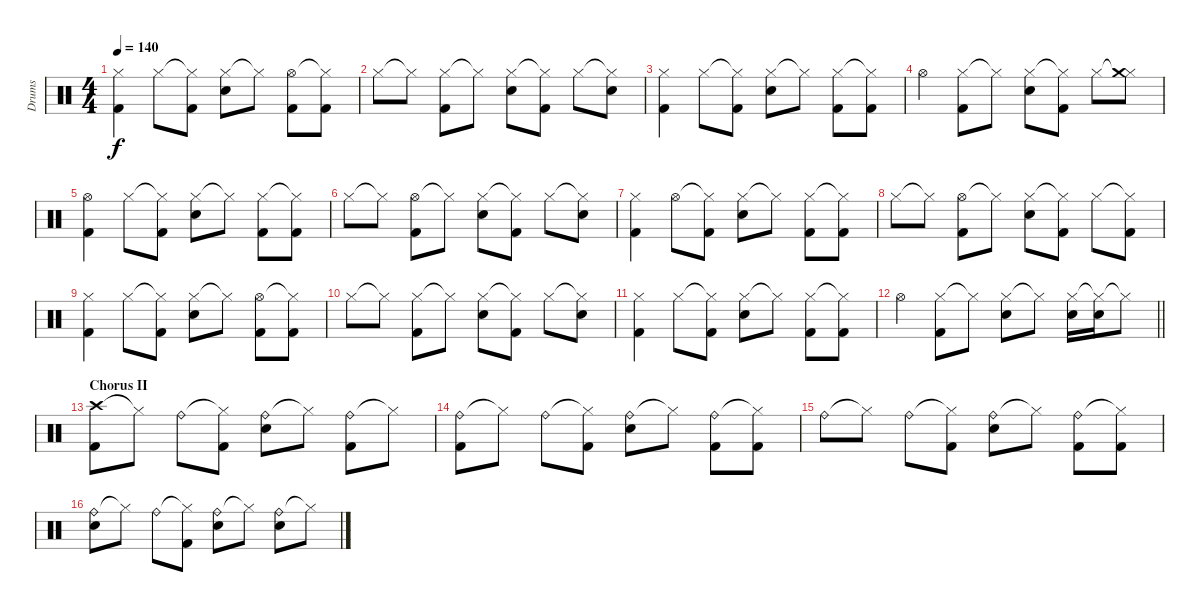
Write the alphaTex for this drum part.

\track ("Drums" "Drums") {instrument percussion}
\staff {score}
\articulation defaults
\ts (4 4)
\tempo 140
\clef neutral
\ks c
("Hi-Hat (closed)" "Kick (hit) 2").4{dy f} "Hi-Hat (closed)".8 ("Hi-Hat (closed)"{t} "Kick (hit) 2").8 ("Hi-Hat (closed)" "Snare (hit) 2").8 "Hi-Hat (closed)"{t}.8 ("Hi-Hat (open)" "Kick (hit) 2").8 ("Hi-Hat (closed)"{t} "Kick (hit) 2").8 |
"Hi-Hat (closed)".8 "Hi-Hat (closed)"{t}.8 ("Hi-Hat (closed)" "Kick (hit) 2").8 "Hi-Hat (closed)"{t}.8 ("Hi-Hat (closed)" "Snare (hit) 2").8 ("Hi-Hat (closed)"{t} "Kick (hit) 2").8 "Hi-Hat (closed)".8 ("Hi-Hat (closed)"{t} "Snare (hit) 2").8 |
("Hi-Hat (closed)" "Kick (hit) 2").4 "Hi-Hat (closed)".8 ("Hi-Hat (closed)"{t} "Kick (hit) 2").8 ("Hi-Hat (closed)" "Snare (hit) 2").8 "Hi-Hat (closed)"{t}.8 ("Hi-Hat (closed)" "Kick (hit) 2").8 ("Hi-Hat (closed)"{t} "Kick (hit) 2").8 |
"Hi-Hat (open)".4 ("Hi-Hat (closed)" "Kick (hit) 2").8 "Hi-Hat (closed)"{t}.8 ("Hi-Hat (closed)" "Snare (hit) 2").8 ("Hi-Hat (closed)"{t} "Kick (hit) 2").8 "Hi-Hat (closed)".8 ("Hi-Hat (closed)"{t} "Crash medium (hit)").8 |
("Hi-Hat (open)" "Kick (hit) 2").4 "Hi-Hat (closed)".8 ("Hi-Hat (closed)"{t} "Kick (hit) 2").8 ("Hi-Hat (closed)" "Snare (hit) 2").8 "Hi-Hat (closed)"{t}.8 ("Hi-Hat (closed)" "Kick (hit) 2").8 ("Hi-Hat (closed)"{t} "Kick (hit) 2").8 |
"Hi-Hat (closed)".8 "Hi-Hat (closed)"{t}.8 ("Hi-Hat (open)" "Kick (hit) 2").8 "Hi-Hat (closed)"{t}.8 ("Hi-Hat (closed)" "Snare (hit) 2").8 ("Hi-Hat (closed)"{t} "Kick (hit) 2").8 "Hi-Hat (closed)".8 ("Hi-Hat (closed)"{t} "Snare (hit) 2").8 |
("Hi-Hat (closed)" "Kick (hit) 2").4 "Hi-Hat (open)".8 ("Hi-Hat (closed)"{t} "Kick (hit) 2").8 ("Hi-Hat (closed)" "Snare (hit) 2").8 "Hi-Hat (closed)"{t}.8 ("Hi-Hat (closed)" "Kick (hit) 2").8 ("Hi-Hat (closed)"{t} "Kick (hit) 2").8 |
"Hi-Hat (closed)".8 "Hi-Hat (closed)"{t}.8 ("Hi-Hat (open)" "Kick (hit) 2").8 "Hi-Hat (closed)"{t}.8 ("Hi-Hat (closed)" "Snare (hit) 2").8 ("Hi-Hat (closed)"{t} "Kick (hit) 2").8 "Hi-Hat (closed)".8 ("Hi-Hat (closed)"{t} "Kick (hit) 2").8 |
("Hi-Hat (closed)" "Kick (hit) 2").4 "Hi-Hat (closed)".8 ("Hi-Hat (closed)"{t} "Kick (hit) 2").8 ("Hi-Hat (closed)" "Snare (hit) 2").8 "Hi-Hat (closed)"{t}.8 ("Hi-Hat (open)" "Kick (hit) 2").8 ("Hi-Hat (closed)"{t} "Kick (hit) 2").8 |
"Hi-Hat (closed)".8 "Hi-Hat (closed)"{t}.8 ("Hi-Hat (closed)" "Kick (hit) 2").8 "Hi-Hat (closed)"{t}.8 ("Hi-Hat (closed)" "Snare (hit) 2").8 ("Hi-Hat (closed)"{t} "Kick (hit) 2").8 "Hi-Hat (closed)".8 ("Hi-Hat (closed)"{t} "Snare (hit) 2").8 |
("Hi-Hat (closed)" "Kick (hit) 2").4 "Hi-Hat (closed)".8 ("Hi-Hat (closed)"{t} "Kick (hit) 2").8 ("Hi-Hat (closed)" "Snare (hit) 2").8 "Hi-Hat (closed)"{t}.8 ("Hi-Hat (closed)" "Kick (hit) 2").8 ("Hi-Hat (closed)"{t} "Kick (hit) 2").8 |
\barLineRight lightlight "Hi-Hat (open)".4
("Hi-Hat (closed)" "Kick (hit) 2").8 "Hi-Hat (closed)"{t}.8 ("Hi-Hat (closed)" "Snare (hit) 2").8 "Hi-Hat (closed)"{t}.8 ("Hi-Hat (closed)" "Snare (hit) 2").16 ("Hi-Hat (closed)"{t} "Snare (hit) 2").16 "Hi-Hat (closed)"{t}.8 |
\section ("" "Chorus II")
("Crash high (hit)" "Kick (hit) 2").8 "Hi-Hat (closed)"{t}.8 "Ride (bell)".8 ("Hi-Hat (closed)"{t} "Kick (hit) 2").8 ("Ride (bell)" "Snare (hit) 2").8 "Hi-Hat (closed)"{t}.8 ("Ride (bell)" "Kick (hit) 2").8 "Hi-Hat (closed)"{t}.8 |
("Ride (bell)" "Kick (hit) 2").8 "Hi-Hat (closed)"{t}.8 "Ride (bell)".8 ("Hi-Hat (closed)"{t} "Kick (hit) 2").8 ("Ride (bell)" "Snare (hit) 2").8 "Hi-Hat (closed)"{t}.8 ("Ride (bell)" "Kick (hit) 2").8 ("Hi-Hat (closed)"{t} "Kick (hit) 2").8 |
"Ride (bell)".8 "Hi-Hat (closed)"{t}.8 "Ride (bell)".8 ("Hi-Hat (closed)"{t} "Kick (hit) 2").8 ("Ride (bell)" "Snare (hit) 2").8 "Hi-Hat (closed)"{t}.8 ("Ride (bell)" "Kick (hit) 2").8 ("Hi-Hat (closed)"{t} "Kick (hit) 2").8 |
("Ride (bell)" "Snare (hit) 2").8 "Hi-Hat (closed)"{t}.8 "Ride (bell)".8 ("Hi-Hat (closed)"{t} "Kick (hit) 2").8 ("Ride (bell)" "Snare (hit) 2").8 "Hi-Hat (closed)"{t}.8 ("Ride (bell)" "Snare (hit) 2").8 "Hi-Hat (closed)"{t}.8
